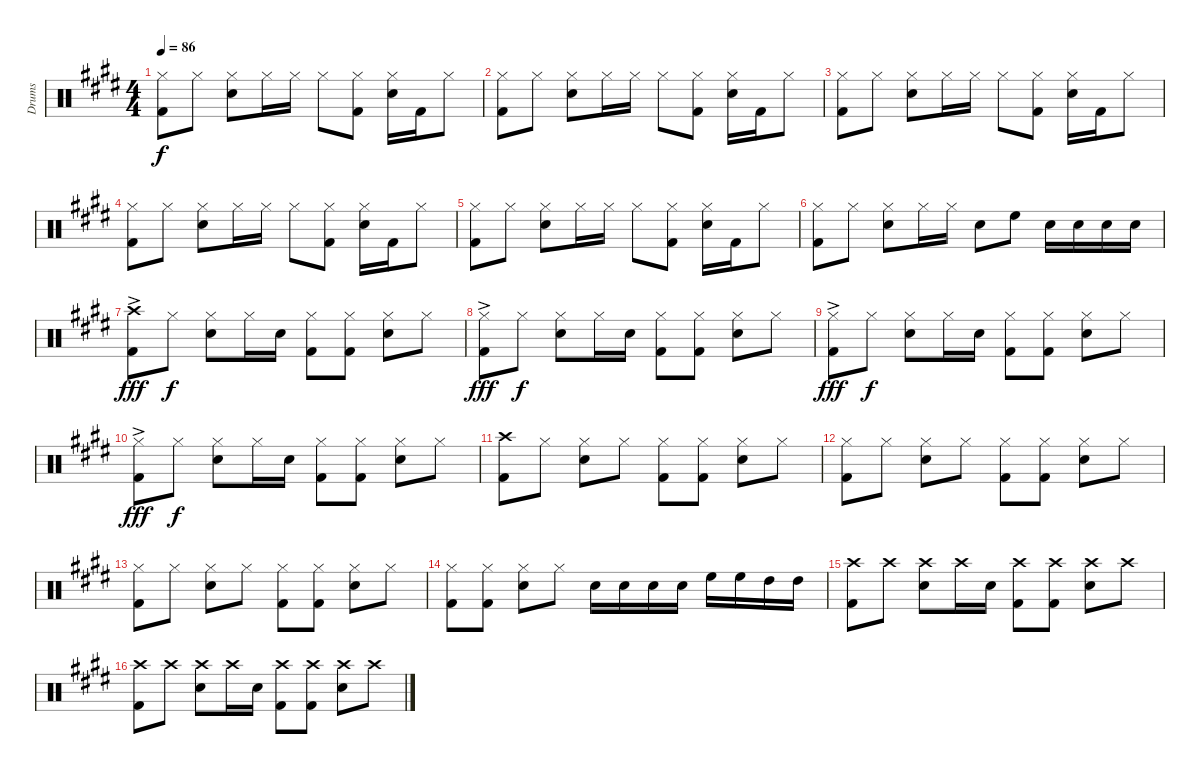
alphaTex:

\track ("Drums" "Drums") {instrument percussion}
\staff {score}
\articulation defaults
\ts (4 4)
\tempo 86
\clef neutral
\ks e
("Hi-Hat (closed)" "Kick (hit) 2").8{dy f} "Hi-Hat (closed)".8 ("Hi-Hat (closed)" "Snare (hit) 2").8 "Hi-Hat (closed)".16 "Hi-Hat (closed)".16 "Hi-Hat (closed)".8 ("Hi-Hat (closed)" "Kick (hit) 2").8 ("Hi-Hat (closed)" "Snare (hit) 2").16 "Kick (hit) 2".16 "Hi-Hat (closed)".8 |
("Hi-Hat (closed)" "Kick (hit) 2").8 "Hi-Hat (closed)".8 ("Hi-Hat (closed)" "Snare (hit) 2").8 "Hi-Hat (closed)".16 "Hi-Hat (closed)".16 "Hi-Hat (closed)".8 ("Hi-Hat (closed)" "Kick (hit) 2").8 ("Hi-Hat (closed)" "Snare (hit) 2").16 "Kick (hit) 2".16 "Hi-Hat (closed)".8 |
("Hi-Hat (closed)" "Kick (hit) 2").8 "Hi-Hat (closed)".8 ("Hi-Hat (closed)" "Snare (hit) 2").8 "Hi-Hat (closed)".16 "Hi-Hat (closed)".16 "Hi-Hat (closed)".8 ("Hi-Hat (closed)" "Kick (hit) 2").8 ("Hi-Hat (closed)" "Snare (hit) 2").16 "Kick (hit) 2".16 "Hi-Hat (closed)".8 |
("Hi-Hat (closed)" "Kick (hit) 2").8 "Hi-Hat (closed)".8 ("Hi-Hat (closed)" "Snare (hit) 2").8 "Hi-Hat (closed)".16 "Hi-Hat (closed)".16 "Hi-Hat (closed)".8 ("Hi-Hat (closed)" "Kick (hit) 2").8 ("Hi-Hat (closed)" "Snare (hit) 2").16 "Kick (hit) 2".16 "Hi-Hat (closed)".8 |
("Hi-Hat (closed)" "Kick (hit) 2").8 "Hi-Hat (closed)".8 ("Hi-Hat (closed)" "Snare (hit) 2").8 "Hi-Hat (closed)".16 "Hi-Hat (closed)".16 "Hi-Hat (closed)".8 ("Hi-Hat (closed)" "Kick (hit) 2").8 ("Hi-Hat (closed)" "Snare (hit) 2").16 "Kick (hit) 2".16 "Hi-Hat (closed)".8 |
("Hi-Hat (closed)" "Kick (hit) 2").8 "Hi-Hat (closed)".8 ("Hi-Hat (closed)" "Snare (hit) 2").8 "Hi-Hat (closed)".16 "Hi-Hat (closed)".16 "Snare (hit) 2".8 "High Floor Tom (hit)".8 "Snare (hit) 2".16 "Snare (hit) 2".16 "Snare (hit) 2".16 "Snare (hit) 2".16 |
("Crash high (hit)"{ac} "Kick (hit) 2").8{dy fff} "Hi-Hat (closed)".8{dy f} ("Hi-Hat (closed)" "Snare (hit) 2").8 "Hi-Hat (closed)".16 "Snare (hit) 2".16 ("Hi-Hat (closed)" "Kick (hit) 2").8 ("Hi-Hat (closed)" "Kick (hit) 2").8 ("Hi-Hat (closed)" "Snare (hit) 2").8 "Hi-Hat (closed)".8 |
("Hi-Hat (closed)"{ac} "Kick (hit) 2").8{dy fff} "Hi-Hat (closed)".8{dy f} ("Hi-Hat (closed)" "Snare (hit) 2").8 "Hi-Hat (closed)".16 "Snare (hit) 2".16 ("Hi-Hat (closed)" "Kick (hit) 2").8 ("Hi-Hat (closed)" "Kick (hit) 2").8 ("Hi-Hat (closed)" "Snare (hit) 2").8 "Hi-Hat (closed)".8 |
("Hi-Hat (closed)"{ac} "Kick (hit) 2").8{dy fff} "Hi-Hat (closed)".8{dy f} ("Hi-Hat (closed)" "Snare (hit) 2").8 "Hi-Hat (closed)".16 "Snare (hit) 2".16 ("Hi-Hat (closed)" "Kick (hit) 2").8 ("Hi-Hat (closed)" "Kick (hit) 2").8 ("Hi-Hat (closed)" "Snare (hit) 2").8 "Hi-Hat (closed)".8 |
("Hi-Hat (closed)"{ac} "Kick (hit) 2").8{dy fff} "Hi-Hat (closed)".8{dy f} ("Hi-Hat (closed)" "Snare (hit) 2").8 "Hi-Hat (closed)".16 "Snare (hit) 2".16 ("Hi-Hat (closed)" "Kick (hit) 2").8 ("Hi-Hat (closed)" "Kick (hit) 2").8 ("Hi-Hat (closed)" "Snare (hit) 2").8 "Hi-Hat (closed)".8 |
("Crash high (hit)" "Kick (hit) 2").8 "Hi-Hat (closed)".8 ("Hi-Hat (closed)" "Snare (hit) 2").8 "Hi-Hat (closed)".8 ("Hi-Hat (closed)" "Kick (hit) 2").8 ("Hi-Hat (closed)" "Kick (hit) 2").8 ("Hi-Hat (closed)" "Snare (hit) 2").8 "Hi-Hat (closed)".8 |
("Hi-Hat (closed)" "Kick (hit) 2").8 "Hi-Hat (closed)".8 ("Hi-Hat (closed)" "Snare (hit) 2").8 "Hi-Hat (closed)".8 ("Hi-Hat (closed)" "Kick (hit) 2").8 ("Hi-Hat (closed)" "Kick (hit) 2").8 ("Hi-Hat (closed)" "Snare (hit) 2").8 "Hi-Hat (closed)".8 |
("Hi-Hat (closed)" "Kick (hit) 2").8 "Hi-Hat (closed)".8 ("Hi-Hat (closed)" "Snare (hit) 2").8 "Hi-Hat (closed)".8 ("Hi-Hat (closed)" "Kick (hit) 2").8 ("Hi-Hat (closed)" "Kick (hit) 2").8 ("Hi-Hat (closed)" "Snare (hit) 2").8 "Hi-Hat (closed)".8 |
("Hi-Hat (closed)" "Kick (hit) 2").8 ("Hi-Hat (closed)" "Kick (hit) 2").8 ("Hi-Hat (closed)" "Snare (hit) 2").8 "Hi-Hat (closed)".8 "Snare (hit) 2".16 "Snare (hit) 2".16 "Snare (hit) 2".16 "Snare (hit) 2".16 "High Floor Tom (hit)".16 "High Floor Tom (hit)".16 "High Tom (hit)".16 "High Tom (hit)".16 |
("Crash high (hit)" "Kick (hit) 2").8 "Crash high (hit)".8 ("Crash high (hit)" "Snare (hit) 2").8 "Crash high (hit)".16 "Snare (hit) 2".16 ("Crash high (hit)" "Kick (hit) 2").8 ("Crash high (hit)" "Kick (hit) 2").8 ("Crash high (hit)" "Snare (hit) 2").8 "Crash high (hit)".8 |
("Crash high (hit)" "Kick (hit) 2").8 "Crash high (hit)".8 ("Crash high (hit)" "Snare (hit) 2").8 "Crash high (hit)".16 "Snare (hit) 2".16 ("Crash high (hit)" "Kick (hit) 2").8 ("Crash high (hit)" "Kick (hit) 2").8 ("Crash high (hit)" "Snare (hit) 2").8 "Crash high (hit)".8
